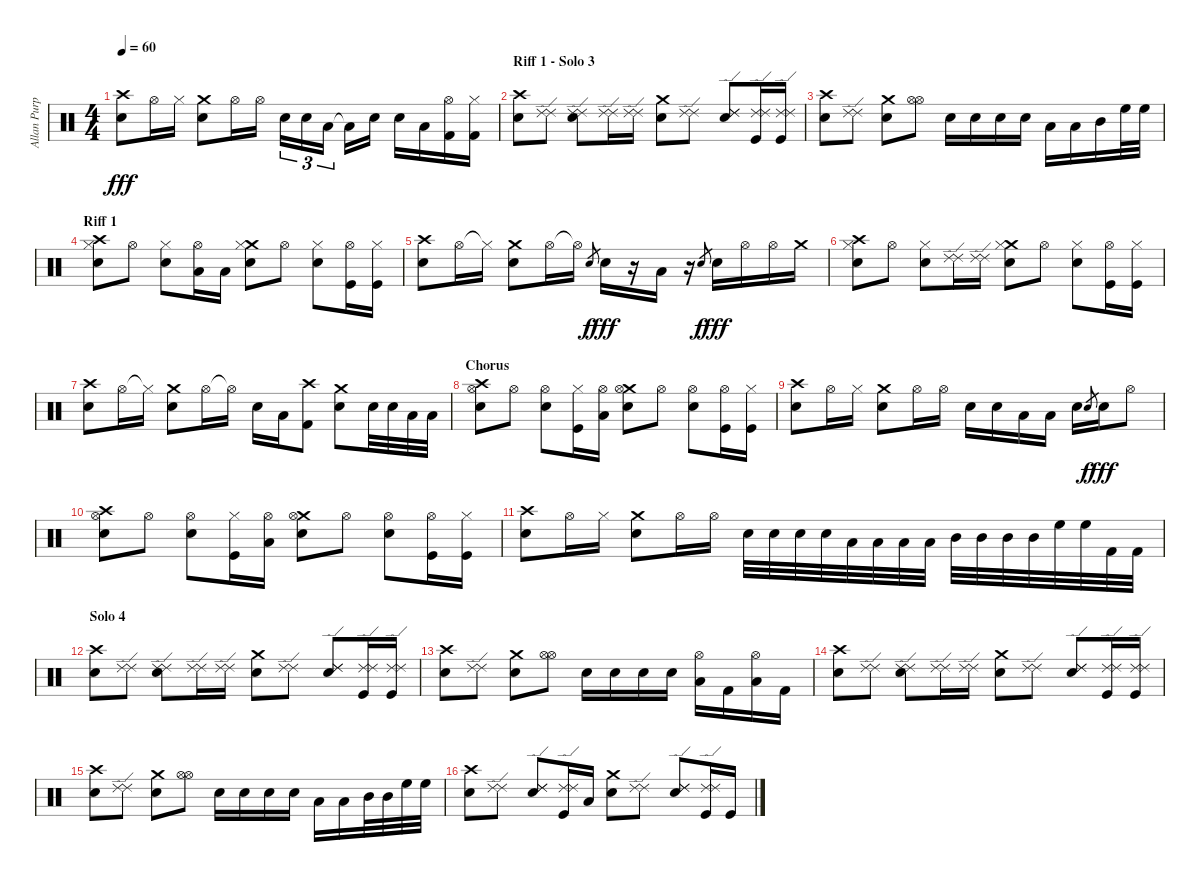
\track ("Allan Purple" "Allan Purp") {instrument percussion}
\staff {score}
\articulation defaults
\ts (4 4)
\tempo 60
\clef neutral
\ks c
("Crash high (hit)" "Snare (hit) 2").8{dy fff} "Hi-Hat (open)".16 "Hi-Hat (closed)".16 ("Crash medium (hit)" "Electric Snare (hit)").8 "Hi-Hat (open)".16 "Hi-Hat (open)".16 "Electric Snare (hit)".16{tu (3 2)} "Electric Snare (hit)".16{tu (3 2)} "Low Tom (hit)".16{tu (3 2)} "Low Tom (hit)"{t}.16 "Electric Snare (hit)".16 "Electric Snare (hit)".16 "Low Tom (hit)".16 ("Hi-Hat (open)" "Kick (hit) 2").16 ("Hi-Hat (closed)" "Kick (hit) 2").16 |
\section ("" "Riff 1 - Solo 3")
("Crash high (hit)" "Snare (hit) 2").8 ("Ride (edge) 2" "Ride (edge) 2").8 ("Ride (edge) 2" "Ride (edge) 2" "Electric Snare (hit)").8 ("Ride (edge) 2" "Ride (edge) 2").16 ("Ride (edge) 2" "Ride (edge) 2").16 ("Crash medium (hit)" "Snare (hit) 2").8 ("Ride (edge) 2" "Ride (edge) 2").8 ("Ride (edge) 2" "Ride (edge) 2" "Electric Snare (hit)").8 ("Ride (edge) 2" "Ride (edge) 2" "Kick (hit)").16 ("Ride (edge) 2" "Ride (edge) 2" "Kick (hit)").16 |
("Crash high (hit)" "Snare (hit) 2").8 ("Ride (edge) 2" "Ride (edge) 2").8 ("Crash medium (hit)" "Electric Snare (hit)").8 ("Hi-Hat (open)" "Hi-Hat (open)").8 "Snare (hit) 2".16 "Snare (hit) 2".16 "Electric Snare (hit)".16 "Electric Snare (hit)".16 "Low Tom (hit)".16 "Low Tom (hit)".16 "Mid Tom (hit)".16 "High Floor Tom (hit)".32 "High Floor Tom (hit)".32 |
\section ("" "Riff 1")
("Crash high (hit)" "Hi-Hat (closed)" "Snare (hit) 2").8 "Hi-Hat (open)".8 ("Hi-Hat (closed)" "Electric Snare (hit)").8 ("Hi-Hat (open)" "Low Tom (hit)").16 "Low Tom (hit)".16 ("Crash medium (hit)" "Hi-Hat (closed)" "Snare (hit) 2").8 "Hi-Hat (open)".8 ("Hi-Hat (closed)" "Electric Snare (hit)").8 ("Hi-Hat (open)" "Kick (hit)").16 ("Hi-Hat (closed)" "Kick (hit)").16 |
("Crash high (hit)" "Snare (hit) 2").8 "Hi-Hat (open)".16 "Hi-Hat (closed)"{t}.16 ("Crash medium (hit)" "Electric Snare (hit)").8 "Hi-Hat (open)".16 "Hi-Hat (open)"{t}.16 "Electric Snare (hit)".8{gr dy f} "Electric Snare (hit)".16{dy fff} r.16 "Low Tom (hit)".16 r.16 "Electric Snare (hit)".8{gr dy f} "Electric Snare (hit)".16{dy fff} "Hi-Hat (open)".16 "Hi-Hat (open)".16 "Crash medium (hit)".16 |
("Crash high (hit)" "Hi-Hat (closed)" "Snare (hit) 2").8 "Hi-Hat (open)".8 ("Hi-Hat (closed)" "Electric Snare (hit)").8 ("Ride (edge) 2" "Ride (edge) 2").16 ("Ride (edge) 2" "Ride (edge) 2").16 ("Crash medium (hit)" "Hi-Hat (closed)" "Snare (hit) 2").8 "Hi-Hat (open)".8 ("Hi-Hat (closed)" "Electric Snare (hit)").8 ("Hi-Hat (open)" "Kick (hit)").16 ("Hi-Hat (closed)" "Kick (hit)").16 |
("Crash high (hit)" "Snare (hit) 2").8 "Hi-Hat (open)".16 "Hi-Hat (closed)"{t}.16 ("Crash medium (hit)" "Electric Snare (hit)").8 "Hi-Hat (open)".16 "Hi-Hat (open)"{t}.16 "Electric Snare (hit)".16 "Low Tom (hit)".16 ("Crash high (hit)" "Kick (hit) 2").8 ("Crash medium (hit)" "Snare (hit) 2").8 "Electric Snare (hit)".32 "Electric Snare (hit)".32 "Low Tom (hit)".32 "Low Tom (hit)".32 |
\section ("" "Chorus")
("Crash high (hit)" "Hi-Hat (open)" "Snare (hit) 2").8 "Hi-Hat (open)".8 ("Hi-Hat (open)" "Electric Snare (hit)").8 ("Hi-Hat (closed)" "Kick (hit)").16 ("Hi-Hat (open)" "Low Tom (hit)").16 ("Crash medium (hit)" "Hi-Hat (open)" "Snare (hit) 2").8 "Hi-Hat (open)".8 ("Hi-Hat (open)" "Electric Snare (hit)").8 ("Hi-Hat (open)" "Kick (hit)").16 ("Hi-Hat (closed)" "Kick (hit)").16 |
("Crash high (hit)" "Snare (hit) 2").8 "Hi-Hat (open)".16 "Hi-Hat (closed)".16 ("Crash medium (hit)" "Electric Snare (hit)").8 "Hi-Hat (open)".16 "Hi-Hat (open)".16 "Electric Snare (hit)".16 "Electric Snare (hit)".16 "Low Tom (hit)".16 "Low Tom (hit)".16 "Electric Snare (hit)".16 "Electric Snare (hit)".8{gr dy f} "Electric Snare (hit)".16{dy fff} "Hi-Hat (open)".8 |
("Crash high (hit)" "Hi-Hat (open)" "Snare (hit) 2").8 "Hi-Hat (open)".8 ("Hi-Hat (open)" "Electric Snare (hit)").8 ("Hi-Hat (closed)" "Kick (hit)").16 ("Hi-Hat (open)" "Low Tom (hit)").16 ("Crash medium (hit)" "Hi-Hat (open)" "Snare (hit) 2").8 "Hi-Hat (open)".8 ("Hi-Hat (open)" "Electric Snare (hit)").8 ("Hi-Hat (open)" "Kick (hit)").16 ("Hi-Hat (closed)" "Kick (hit)").16 |
("Crash high (hit)" "Snare (hit) 2").8 "Hi-Hat (open)".16 "Hi-Hat (closed)".16 ("Crash medium (hit)" "Electric Snare (hit)").8 "Hi-Hat (open)".16 "Hi-Hat (open)".16 "Electric Snare (hit)".32 "Electric Snare (hit)".32 "Electric Snare (hit)".32 "Electric Snare (hit)".32 "Low Tom (hit)".32 "Low Tom (hit)".32 "Low Tom (hit)".32 "Low Tom (hit)".32 "Mid Tom (hit)".32 "Mid Tom (hit)".32 "Mid Tom (hit)".32 "Mid Tom (hit)".32 "High Floor Tom (hit)".32 "High Floor Tom (hit)".32 "Kick (hit) 2".32 "Kick (hit) 2".32 |
\section ("" "Solo 4")
("Crash high (hit)" "Snare (hit) 2").8 ("Ride (edge) 2" "Ride (edge) 2").8 ("Ride (edge) 2" "Ride (edge) 2" "Electric Snare (hit)").8 ("Ride (edge) 2" "Ride (edge) 2").16 ("Ride (edge) 2" "Ride (edge) 2").16 ("Crash medium (hit)" "Snare (hit) 2").8 ("Ride (edge) 2" "Ride (edge) 2").8 ("Ride (edge) 2" "Ride (edge) 2" "Electric Snare (hit)").8 ("Ride (edge) 2" "Ride (edge) 2" "Kick (hit)").16 ("Ride (edge) 2" "Ride (edge) 2" "Kick (hit)").16 |
("Crash high (hit)" "Snare (hit) 2").8 ("Ride (edge) 2" "Ride (edge) 2").8 ("Crash medium (hit)" "Electric Snare (hit)").8 ("Hi-Hat (open)" "Hi-Hat (open)").8 "Snare (hit) 2".16 "Snare (hit) 2".16 "Electric Snare (hit)".16 "Electric Snare (hit)".16 ("Hi-Hat (open)" "Low Tom (hit)").16 "Kick (hit) 2".16 ("Hi-Hat (open)" "Low Tom (hit)").16 "Kick (hit) 2".16 |
("Crash high (hit)" "Snare (hit) 2").8 ("Ride (edge) 2" "Ride (edge) 2").8 ("Ride (edge) 2" "Ride (edge) 2" "Electric Snare (hit)").8 ("Ride (edge) 2" "Ride (edge) 2").16 ("Ride (edge) 2" "Ride (edge) 2").16 ("Crash medium (hit)" "Snare (hit) 2").8 ("Ride (edge) 2" "Ride (edge) 2").8 ("Ride (edge) 2" "Ride (edge) 2" "Electric Snare (hit)").8 ("Ride (edge) 2" "Ride (edge) 2" "Kick (hit)").16 ("Ride (edge) 2" "Ride (edge) 2" "Kick (hit)").16 |
("Crash high (hit)" "Snare (hit) 2").8 ("Ride (edge) 2" "Ride (edge) 2").8 ("Crash medium (hit)" "Electric Snare (hit)").8 ("Hi-Hat (open)" "Hi-Hat (open)").8 "Snare (hit) 2".16 "Snare (hit) 2".16 "Electric Snare (hit)".16 "Electric Snare (hit)".16 "Low Tom (hit)".16 "Low Tom (hit)".16 "Mid Tom (hit)".32 "Mid Tom (hit)".32 "High Floor Tom (hit)".32 "High Floor Tom (hit)".32 |
("Crash high (hit)" "Snare (hit) 2").8 ("Ride (edge) 2" "Ride (edge) 2").8 ("Ride (edge) 2" "Ride (edge) 2" "Electric Snare (hit)").8 ("Ride (edge) 2" "Ride (edge) 2" "Kick (hit)").16 "Low Tom (hit)".16 ("Crash medium (hit)" "Snare (hit) 2").8 ("Ride (edge) 2" "Ride (edge) 2").8 ("Ride (edge) 2" "Ride (edge) 2" "Electric Snare (hit)").8 ("Ride (edge) 2" "Ride (edge) 2" "Kick (hit)").16 "Kick (hit)".16
